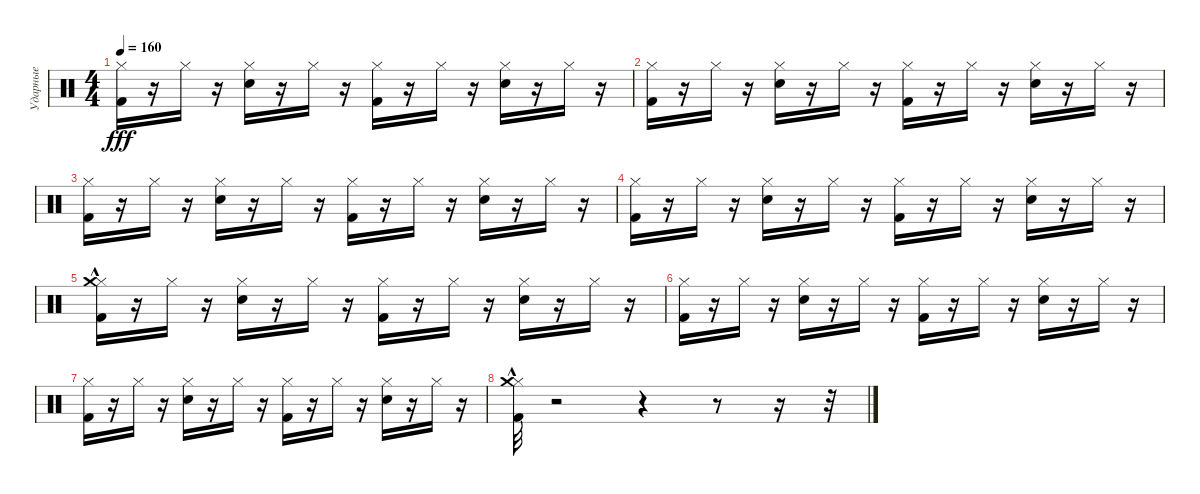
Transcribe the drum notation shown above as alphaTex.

\track ("Ударные" "Ударные") {instrument percussion}
\staff {score}
\articulation defaults
\ts (4 4)
\tempo 160
\clef neutral
\ks c
("Hi-Hat (closed)" "Kick (hit) 2").16{dy fff} r.16 "Hi-Hat (closed)".16 r.16 ("Hi-Hat (closed)" "Electric Snare (hit)").16 r.16 "Hi-Hat (closed)".16 r.16 ("Hi-Hat (closed)" "Kick (hit) 2").16 r.16 "Hi-Hat (closed)".16 r.16 ("Hi-Hat (closed)" "Electric Snare (hit)").16 r.16 "Hi-Hat (closed)".16 r.16 |
("Hi-Hat (closed)" "Kick (hit) 2").16 r.16 "Hi-Hat (closed)".16 r.16 ("Hi-Hat (closed)" "Electric Snare (hit)").16 r.16 "Hi-Hat (closed)".16 r.16 ("Hi-Hat (closed)" "Kick (hit) 2").16 r.16 "Hi-Hat (closed)".16 r.16 ("Hi-Hat (closed)" "Electric Snare (hit)").16 r.16 "Hi-Hat (closed)".16 r.16 |
("Hi-Hat (closed)" "Kick (hit) 2").16 r.16 "Hi-Hat (closed)".16 r.16 ("Hi-Hat (closed)" "Electric Snare (hit)").16 r.16 "Hi-Hat (closed)".16 r.16 ("Hi-Hat (closed)" "Kick (hit) 2").16 r.16 "Hi-Hat (closed)".16 r.16 ("Hi-Hat (closed)" "Electric Snare (hit)").16 r.16 "Hi-Hat (closed)".16 r.16 |
("Hi-Hat (closed)" "Kick (hit) 2").16 r.16 "Hi-Hat (closed)".16 r.16 ("Hi-Hat (closed)" "Electric Snare (hit)").16 r.16 "Hi-Hat (closed)".16 r.16 ("Hi-Hat (closed)" "Kick (hit) 2").16 r.16 "Hi-Hat (closed)".16 r.16 ("Hi-Hat (closed)" "Electric Snare (hit)").16 r.16 "Hi-Hat (closed)".16 r.16 |
("Hi-Hat (closed)" "Kick (hit) 2" "Crash medium (hit)"{hac}).16 r.16 "Hi-Hat (closed)".16 r.16 ("Hi-Hat (closed)" "Electric Snare (hit)").16 r.16 "Hi-Hat (closed)".16 r.16 ("Hi-Hat (closed)" "Kick (hit) 2").16 r.16 "Hi-Hat (closed)".16 r.16 ("Hi-Hat (closed)" "Electric Snare (hit)").16 r.16 "Hi-Hat (closed)".16 r.16 |
("Hi-Hat (closed)" "Kick (hit) 2").16 r.16 "Hi-Hat (closed)".16 r.16 ("Hi-Hat (closed)" "Electric Snare (hit)").16 r.16 "Hi-Hat (closed)".16 r.16 ("Hi-Hat (closed)" "Kick (hit) 2").16 r.16 "Hi-Hat (closed)".16 r.16 ("Hi-Hat (closed)" "Electric Snare (hit)").16 r.16 "Hi-Hat (closed)".16 r.16 |
("Hi-Hat (closed)" "Kick (hit) 2").16 r.16 "Hi-Hat (closed)".16 r.16 ("Hi-Hat (closed)" "Electric Snare (hit)").16 r.16 "Hi-Hat (closed)".16 r.16 ("Hi-Hat (closed)" "Kick (hit) 2").16 r.16 "Hi-Hat (closed)".16 r.16 ("Hi-Hat (closed)" "Electric Snare (hit)").16 r.16 "Hi-Hat (closed)".16 r.16 |
("Hi-Hat (closed)" "Kick (hit) 2" "Crash medium (hit)"{hac}).32 r.2 r.4 r.8 r.16 r.32
